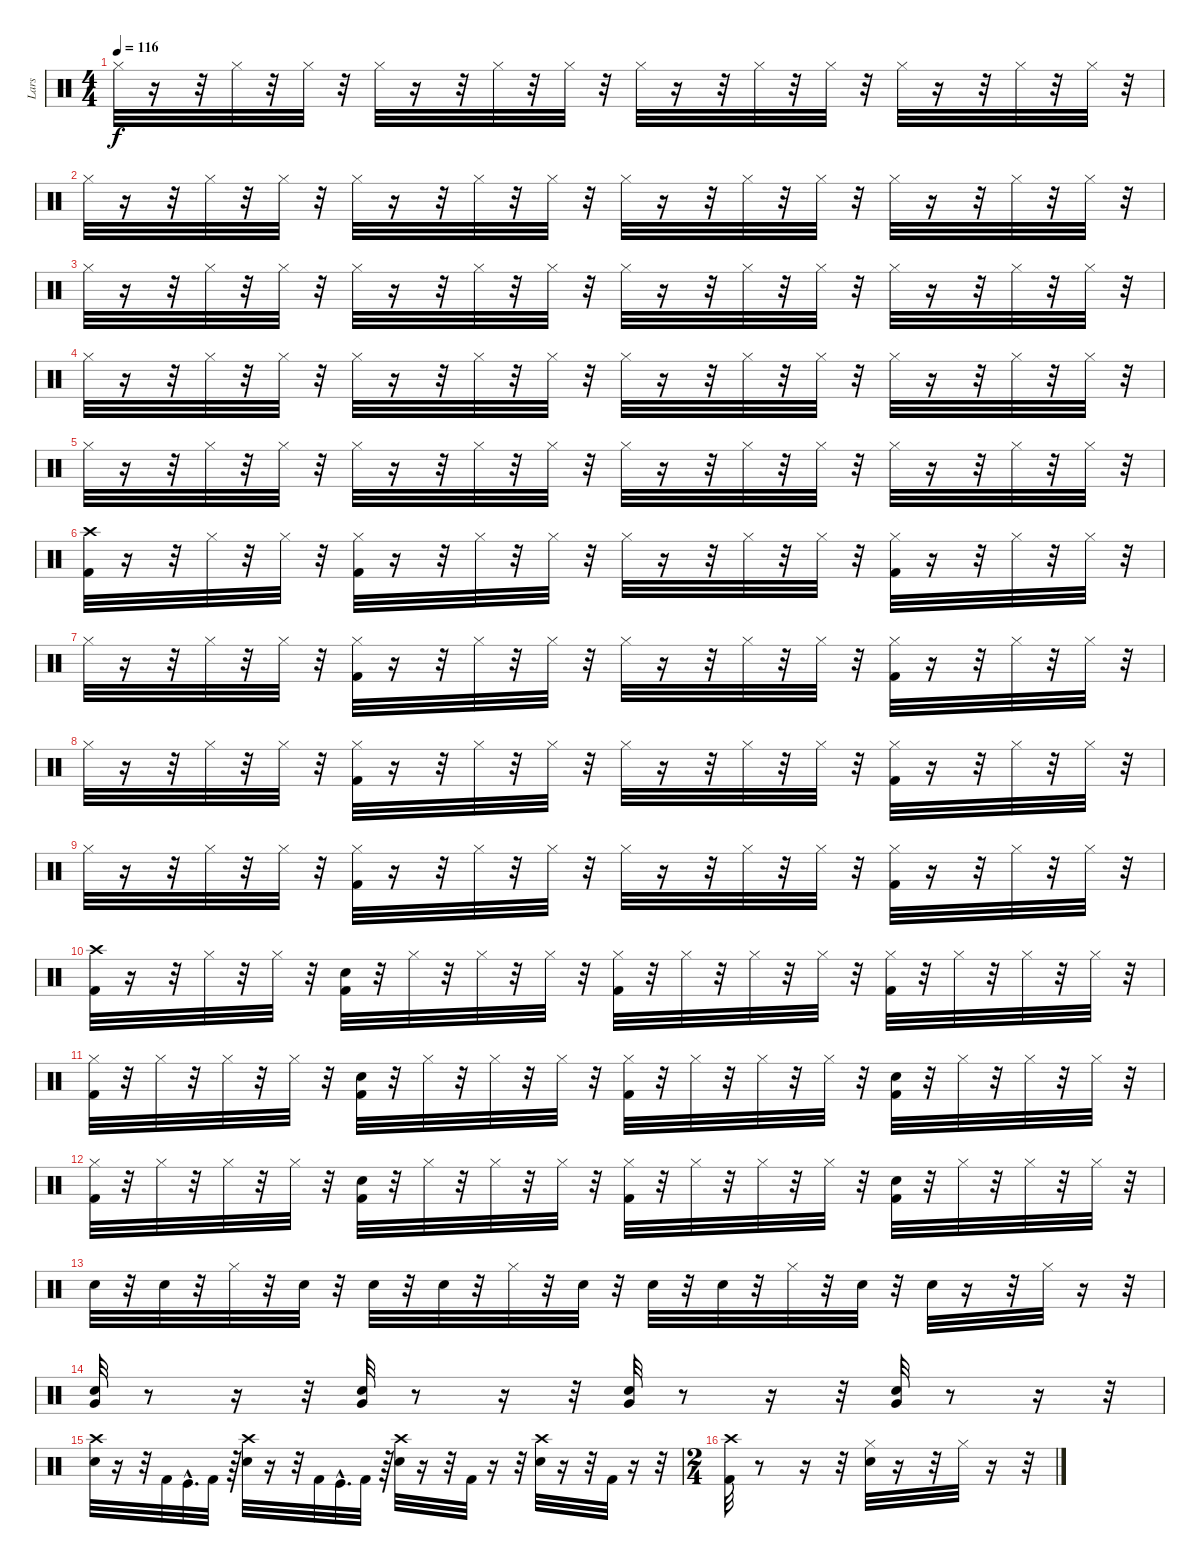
\track ("Lars" "Lars") {instrument percussion}
\staff {score}
\articulation defaults
\ts (4 4)
\tempo 116
\clef neutral
\ks c "Hi-Hat (closed)".32{dy f}
r.16 r.32 "Hi-Hat (closed)".32 r.32 "Hi-Hat (closed)".32 r.32 "Hi-Hat (closed)".32 r.16 r.32 "Hi-Hat (closed)".32 r.32 "Hi-Hat (closed)".32 r.32 "Hi-Hat (closed)".32 r.16 r.32 "Hi-Hat (closed)".32 r.32 "Hi-Hat (closed)".32 r.32 "Hi-Hat (closed)".32 r.16 r.32 "Hi-Hat (closed)".32 r.32 "Hi-Hat (closed)".32 r.32 |
"Hi-Hat (closed)".32 r.16 r.32 "Hi-Hat (closed)".32 r.32 "Hi-Hat (closed)".32 r.32 "Hi-Hat (closed)".32 r.16 r.32 "Hi-Hat (closed)".32 r.32 "Hi-Hat (closed)".32 r.32 "Hi-Hat (closed)".32 r.16 r.32 "Hi-Hat (closed)".32 r.32 "Hi-Hat (closed)".32 r.32 "Hi-Hat (closed)".32 r.16 r.32 "Hi-Hat (closed)".32 r.32 "Hi-Hat (closed)".32 r.32 |
"Hi-Hat (closed)".32 r.16 r.32 "Hi-Hat (closed)".32 r.32 "Hi-Hat (closed)".32 r.32 "Hi-Hat (closed)".32 r.16 r.32 "Hi-Hat (closed)".32 r.32 "Hi-Hat (closed)".32 r.32 "Hi-Hat (closed)".32 r.16 r.32 "Hi-Hat (closed)".32 r.32 "Hi-Hat (closed)".32 r.32 "Hi-Hat (closed)".32 r.16 r.32 "Hi-Hat (closed)".32 r.32 "Hi-Hat (closed)".32 r.32 |
"Hi-Hat (closed)".32 r.16 r.32 "Hi-Hat (closed)".32 r.32 "Hi-Hat (closed)".32 r.32 "Hi-Hat (closed)".32 r.16 r.32 "Hi-Hat (closed)".32 r.32 "Hi-Hat (closed)".32 r.32 "Hi-Hat (closed)".32 r.16 r.32 "Hi-Hat (closed)".32 r.32 "Hi-Hat (closed)".32 r.32 "Hi-Hat (closed)".32 r.16 r.32 "Hi-Hat (closed)".32 r.32 "Hi-Hat (closed)".32 r.32 |
"Hi-Hat (closed)".32 r.16 r.32 "Hi-Hat (closed)".32 r.32 "Hi-Hat (closed)".32 r.32 "Hi-Hat (closed)".32 r.16 r.32 "Hi-Hat (closed)".32 r.32 "Hi-Hat (closed)".32 r.32 "Hi-Hat (closed)".32 r.16 r.32 "Hi-Hat (closed)".32 r.32 "Hi-Hat (closed)".32 r.32 "Hi-Hat (closed)".32 r.16 r.32 "Hi-Hat (closed)".32 r.32 "Hi-Hat (closed)".32 r.32 |
("Kick (hit) 2" "Crash high (hit)").32 r.16 r.32 "Hi-Hat (closed)".32 r.32 "Hi-Hat (closed)".32 r.32 ("Kick (hit) 2" "Hi-Hat (closed)").32 r.16 r.32 "Hi-Hat (closed)".32 r.32 "Hi-Hat (closed)".32 r.32 "Hi-Hat (closed)".32 r.16 r.32 "Hi-Hat (closed)".32 r.32 "Hi-Hat (closed)".32 r.32 ("Kick (hit) 2" "Hi-Hat (closed)").32 r.16 r.32 "Hi-Hat (closed)".32 r.32 "Hi-Hat (closed)".32 r.32 |
"Hi-Hat (closed)".32 r.16 r.32 "Hi-Hat (closed)".32 r.32 "Hi-Hat (closed)".32 r.32 ("Kick (hit) 2" "Hi-Hat (closed)").32 r.16 r.32 "Hi-Hat (closed)".32 r.32 "Hi-Hat (closed)".32 r.32 "Hi-Hat (closed)".32 r.16 r.32 "Hi-Hat (closed)".32 r.32 "Hi-Hat (closed)".32 r.32 ("Kick (hit) 2" "Hi-Hat (closed)").32 r.16 r.32 "Hi-Hat (closed)".32 r.32 "Hi-Hat (closed)".32 r.32 |
"Hi-Hat (closed)".32 r.16 r.32 "Hi-Hat (closed)".32 r.32 "Hi-Hat (closed)".32 r.32 ("Kick (hit) 2" "Hi-Hat (closed)").32 r.16 r.32 "Hi-Hat (closed)".32 r.32 "Hi-Hat (closed)".32 r.32 "Hi-Hat (closed)".32 r.16 r.32 "Hi-Hat (closed)".32 r.32 "Hi-Hat (closed)".32 r.32 ("Kick (hit) 2" "Hi-Hat (closed)").32 r.16 r.32 "Hi-Hat (closed)".32 r.32 "Hi-Hat (closed)".32 r.32 |
"Hi-Hat (closed)".32 r.16 r.32 "Hi-Hat (closed)".32 r.32 "Hi-Hat (closed)".32 r.32 ("Kick (hit) 2" "Hi-Hat (closed)").32 r.16 r.32 "Hi-Hat (closed)".32 r.32 "Hi-Hat (closed)".32 r.32 "Hi-Hat (closed)".32 r.16 r.32 "Hi-Hat (closed)".32 r.32 "Hi-Hat (closed)".32 r.32 ("Kick (hit) 2" "Hi-Hat (closed)").32 r.16 r.32 "Hi-Hat (closed)".32 r.32 "Hi-Hat (closed)".32 r.32 |
("Kick (hit) 2" "Crash high (hit)").32 r.16 r.32 "Hi-Hat (closed)".32 r.32 "Hi-Hat (closed)".32 r.32 ("Snare (hit) 2" "Kick (hit) 2").32 r.32 "Hi-Hat (closed)".32 r.32 "Hi-Hat (closed)".32 r.32 "Hi-Hat (closed)".32 r.32 ("Hi-Hat (closed)" "Kick (hit) 2").32 r.32 "Hi-Hat (closed)".32 r.32 "Hi-Hat (closed)".32 r.32 "Hi-Hat (closed)".32 r.32 ("Hi-Hat (closed)" "Kick (hit) 2").32 r.32 "Hi-Hat (closed)".32 r.32 "Hi-Hat (closed)".32 r.32 "Hi-Hat (closed)".32 r.32 |
("Kick (hit) 2" "Hi-Hat (closed)").32 r.32 "Hi-Hat (closed)".32 r.32 "Hi-Hat (closed)".32 r.32 "Hi-Hat (closed)".32 r.32 ("Snare (hit) 2" "Kick (hit) 2").32 r.32 "Hi-Hat (closed)".32 r.32 "Hi-Hat (closed)".32 r.32 "Hi-Hat (closed)".32 r.32 ("Hi-Hat (closed)" "Kick (hit) 2").32 r.32 "Hi-Hat (closed)".32 r.32 "Hi-Hat (closed)".32 r.32 "Hi-Hat (closed)".32 r.32 ("Snare (hit) 2" "Kick (hit) 2").32 r.32 "Hi-Hat (closed)".32 r.32 "Hi-Hat (closed)".32 r.32 "Hi-Hat (closed)".32 r.32 |
("Kick (hit) 2" "Hi-Hat (closed)").32 r.32 "Hi-Hat (closed)".32 r.32 "Hi-Hat (closed)".32 r.32 "Hi-Hat (closed)".32 r.32 ("Snare (hit) 2" "Kick (hit) 2").32 r.32 "Hi-Hat (closed)".32 r.32 "Hi-Hat (closed)".32 r.32 "Hi-Hat (closed)".32 r.32 ("Hi-Hat (closed)" "Kick (hit) 2").32 r.32 "Hi-Hat (closed)".32 r.32 "Hi-Hat (closed)".32 r.32 "Hi-Hat (closed)".32 r.32 ("Snare (hit) 2" "Kick (hit) 2").32 r.32 "Hi-Hat (closed)".32 r.32 "Hi-Hat (closed)".32 r.32 "Hi-Hat (closed)".32 r.32 |
"Snare (hit) 2".32 r.32 "Snare (hit) 2".32 r.32 "Hi-Hat (closed)".32 r.32 "Snare (hit) 2".32 r.32 "Snare (hit) 2".32 r.32 "Snare (hit) 2".32 r.32 "Hi-Hat (closed)".32 r.32 "Snare (hit) 2".32 r.32 "Snare (hit) 2".32 r.32 "Snare (hit) 2".32 r.32 "Hi-Hat (closed)".32 r.32 "Snare (hit) 2".32 r.32 "Snare (hit) 2".32 r.16 r.32 "Hi-Hat (closed)".32 r.16 r.32 |
("Very Low Tom (hit)" "Snare (hit) 2").32 r.8 r.16 r.32 ("Very Low Tom (hit)" "Snare (hit) 2").32 r.8 r.16 r.32 ("Very Low Tom (hit)" "Snare (hit) 2").32 r.8 r.16 r.32 ("Very Low Tom (hit)" "Snare (hit) 2").32 r.8 r.16 r.32 |
("Crash high (hit)" "Snare (hit) 2").32 r.16 r.32 "Kick (hit) 2".32 "Kick (hit)"{hac}.32{d} "Kick (hit) 2".32 r.64 ("Crash high (hit)" "Snare (hit) 2").32 r.16 r.32 "Kick (hit) 2".32 "Kick (hit)"{hac}.32{d} "Kick (hit) 2".32 r.64 ("Crash high (hit)" "Snare (hit) 2").32 r.16 r.32 "Kick (hit) 2".32 r.16 r.32 ("Crash high (hit)" "Snare (hit) 2").32 r.16 r.32 "Kick (hit) 2".32 r.16 r.32 |
\ts (2 4)
("Crash high (hit)" "Kick (hit) 2").32 r.8 r.16 r.32 ("Hi-Hat (closed)" "Snare (hit) 2").32 r.16 r.32 "Hi-Hat (closed)".32 r.16 r.32
